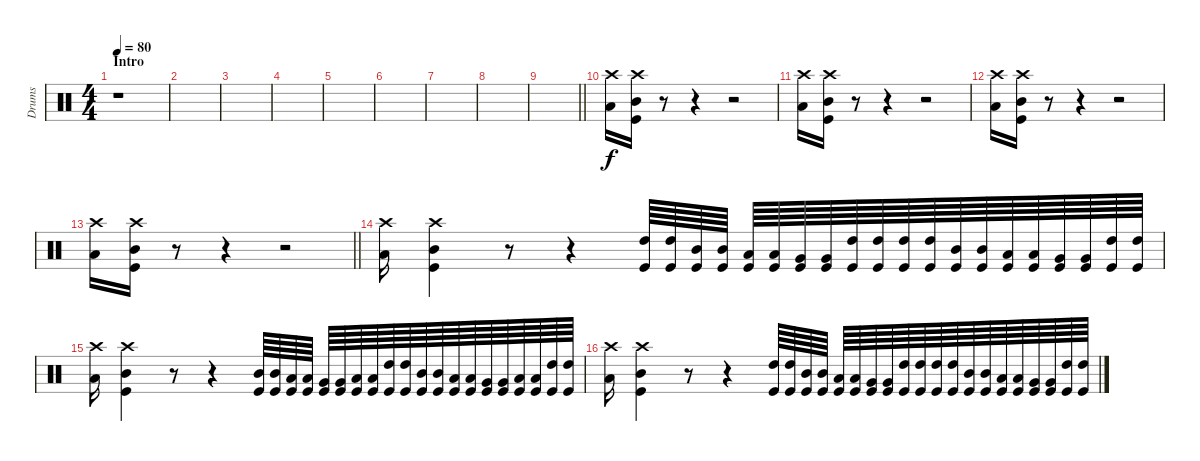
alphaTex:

\track ("Drums" "Drums") {instrument percussion}
\staff {score}
\articulation defaults
\ts (4 4)
\section ("" "Intro")
\tempo 80
\clef neutral
\ks c
r.1{dy f} |
|
|
|
|
|
|
|
\barLineRight lightlight
|
("Low Tom (hit)" "Crash high (hit)").16 ("Kick (hit)" "Mid Tom (hit)" "Crash high (hit)").16 r.8 r.4 r.2 |
("Low Tom (hit)" "Crash high (hit)").16 ("Kick (hit)" "Mid Tom (hit)" "Crash high (hit)").16 r.8 r.4 r.2 |
("Low Tom (hit)" "Crash high (hit)").16 ("Kick (hit)" "Mid Tom (hit)" "Crash high (hit)").16 r.8 r.4 r.2 |
\barLineRight lightlight
("Low Tom (hit)" "Crash high (hit)").16 ("Kick (hit)" "Mid Tom (hit)" "Crash high (hit)").16 r.8 r.4 r.2 |
("Low Tom (hit)" "Crash high (hit)").16 ("Kick (hit)" "Mid Tom (hit)" "Crash high (hit)").4 r.8 r.4 ("Kick (hit)" "High Tom (hit)").64 ("Kick (hit)" "High Tom (hit)").64 ("Kick (hit)" "Mid Tom (hit)").64 ("Kick (hit)" "Mid Tom (hit)").64 ("Kick (hit)" "Low Tom (hit)").64 ("Kick (hit)" "Low Tom (hit)").64 ("Kick (hit)" "Very Low Tom (hit)").64 ("Kick (hit)" "Very Low Tom (hit)").64 ("Kick (hit)" "High Tom (hit)").64 ("Kick (hit)" "High Tom (hit)").64 ("Kick (hit)" "High Tom (hit)").64 ("Kick (hit)" "High Tom (hit)").64 ("Kick (hit)" "Mid Tom (hit)").64 ("Kick (hit)" "Mid Tom (hit)").64 ("Kick (hit)" "Low Tom (hit)").64 ("Kick (hit)" "Low Tom (hit)").64 ("Kick (hit)" "Very Low Tom (hit)").64 ("Kick (hit)" "Very Low Tom (hit)").64 ("Kick (hit)" "High Tom (hit)").64 ("Kick (hit)" "High Tom (hit)").64 |
("Low Tom (hit)" "Crash high (hit)").16 ("Kick (hit)" "Mid Tom (hit)" "Crash high (hit)").4 r.8 r.4 ("Kick (hit)" "Mid Tom (hit)").64 ("Kick (hit)" "Mid Tom (hit)").64 ("Kick (hit)" "Low Tom (hit)").64 ("Kick (hit)" "Low Tom (hit)").64 ("Kick (hit)" "Very Low Tom (hit)").64 ("Kick (hit)" "Very Low Tom (hit)").64 ("Kick (hit)" "Low Floor Tom (hit)").64 ("Kick (hit)" "Low Floor Tom (hit)").64 ("Kick (hit)" "High Tom (hit)").64 ("Kick (hit)" "High Tom (hit)").64 ("Kick (hit)" "Mid Tom (hit)").64 ("Kick (hit)" "Mid Tom (hit)").64 ("Kick (hit)" "Low Tom (hit)").64 ("Kick (hit)" "Low Tom (hit)").64 ("Kick (hit)" "Very Low Tom (hit)").64 ("Kick (hit)" "Very Low Tom (hit)").64 ("Kick (hit)" "Low Floor Tom (hit)").64 ("Kick (hit)" "Low Floor Tom (hit)").64 ("Kick (hit)" "High Tom (hit)").64 ("Kick (hit)" "High Tom (hit)").64 |
("Low Tom (hit)" "Crash high (hit)").16 ("Kick (hit)" "Mid Tom (hit)" "Crash high (hit)").4 r.8 r.4 ("Kick (hit)" "High Tom (hit)").64 ("Kick (hit)" "High Tom (hit)").64 ("Kick (hit)" "Mid Tom (hit)").64 ("Kick (hit)" "Mid Tom (hit)").64 ("Kick (hit)" "Low Tom (hit)").64 ("Kick (hit)" "Low Tom (hit)").64 ("Kick (hit)" "Very Low Tom (hit)").64 ("Kick (hit)" "Very Low Tom (hit)").64 ("Kick (hit)" "High Tom (hit)").64 ("Kick (hit)" "High Tom (hit)").64 ("Kick (hit)" "High Tom (hit)").64 ("Kick (hit)" "High Tom (hit)").64 ("Kick (hit)" "Mid Tom (hit)").64 ("Kick (hit)" "Mid Tom (hit)").64 ("Kick (hit)" "Low Tom (hit)").64 ("Kick (hit)" "Low Tom (hit)").64 ("Kick (hit)" "Very Low Tom (hit)").64 ("Kick (hit)" "Very Low Tom (hit)").64 ("Kick (hit)" "High Tom (hit)").64 ("Kick (hit)" "High Tom (hit)").64
